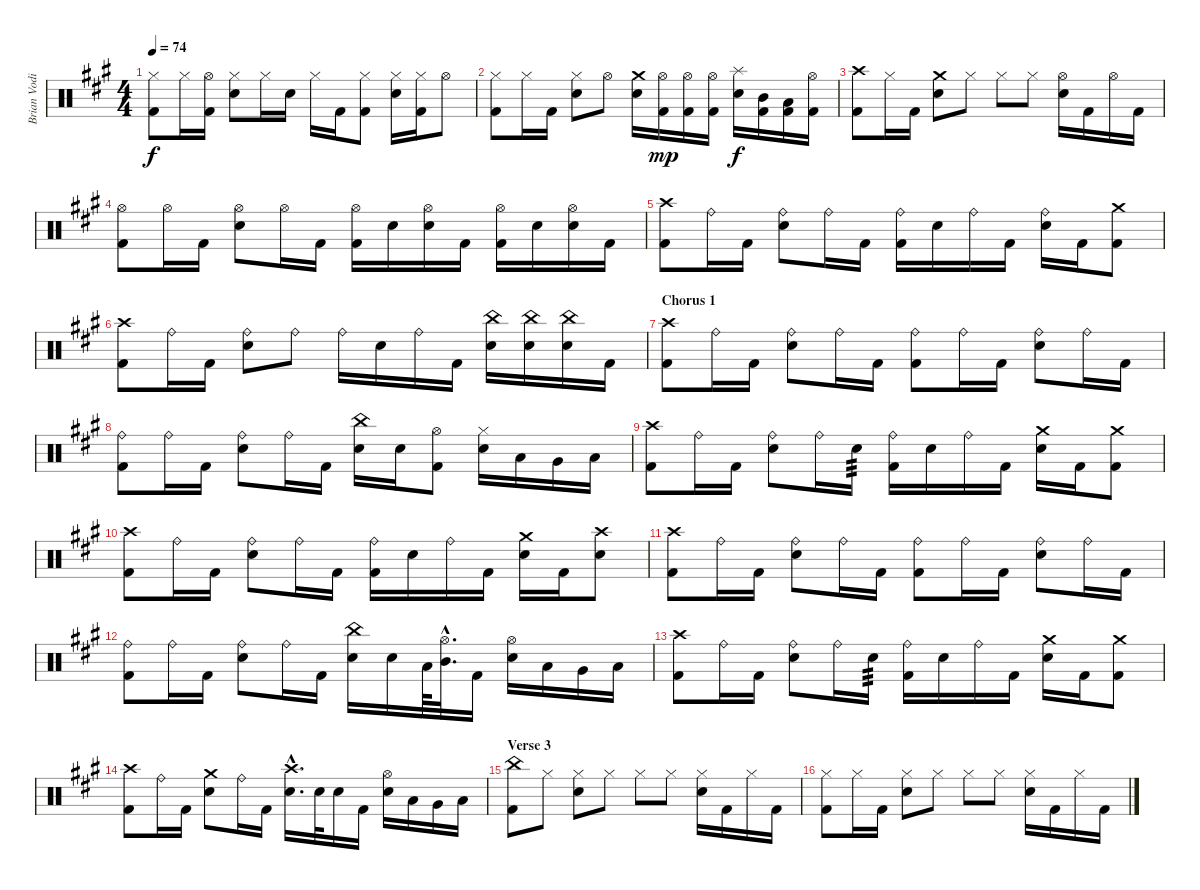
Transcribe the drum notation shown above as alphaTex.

\track ("Brian Vodinh" "Brian Vodi") {instrument percussion}
\staff {score}
\articulation defaults
\ts (4 4)
\tempo 74
\clef neutral
\ks f#minor
("Hi-Hat (closed)" "Kick (hit) 2").8{dy f} "Hi-Hat (closed)".16 ("Hi-Hat (open)" "Kick (hit) 2").16 ("Hi-Hat (closed)" "Electric Snare (hit)").8 "Hi-Hat (closed)".16 "Electric Snare (hit)".16 "Hi-Hat (closed)".16 "Kick (hit) 2".16 ("Hi-Hat (closed)" "Kick (hit) 2").8 ("Hi-Hat (closed)" "Electric Snare (hit)").16 ("Hi-Hat (closed)" "Kick (hit) 2").16 "Hi-Hat (open)".8 |
("Hi-Hat (closed)" "Kick (hit) 2").8 "Hi-Hat (closed)".16 "Kick (hit) 2".16 ("Hi-Hat (closed)" "Electric Snare (hit)").8 "Hi-Hat (open)".8 ("Crash medium (hit)" "Electric Snare (hit)").16 ("Hi-Hat (open)" "Kick (hit) 2").16{dy mp} ("Hi-Hat (open)" "Kick (hit) 2").16 ("Hi-Hat (open)" "Kick (hit) 2").16 ("Splash (hit)" "Electric Snare (hit)").16{dy f} ("Mid Tom (hit)" "Kick (hit) 2").16 ("Low Tom (hit)" "Kick (hit) 2").16 ("Hi-Hat (open)" "Kick (hit) 2").16 |
("Crash high (hit)" "Kick (hit) 2").8 "Hi-Hat (closed)".16 "Kick (hit) 2".16 ("Crash medium (hit)" "Electric Snare (hit)").8 "Hi-Hat (closed)".8 "Hi-Hat (closed)".8 "Hi-Hat (closed)".8 ("Hi-Hat (open)" "Electric Snare (hit)").16 "Kick (hit) 2".16 "Hi-Hat (open)".16 "Kick (hit) 2".16 |
("Hi-Hat (open)" "Kick (hit) 2").8 "Hi-Hat (open)".16 "Kick (hit) 2".16 ("Hi-Hat (open)" "Electric Snare (hit)").8 "Hi-Hat (open)".16 "Kick (hit) 2".16 ("Hi-Hat (open)" "Kick (hit) 2").16 "Electric Snare (hit)".16 ("Hi-Hat (open)" "Electric Snare (hit)").16 "Kick (hit) 2".16 ("Hi-Hat (open)" "Kick (hit) 2").16 "Electric Snare (hit)".16 ("Hi-Hat (open)" "Electric Snare (hit)").16 "Kick (hit) 2".16 |
("Crash high (hit)" "Kick (hit) 2").8 "Ride (bell)".16 "Kick (hit) 2".16 ("Ride (bell)" "Electric Snare (hit)").8 "Ride (bell)".16 "Kick (hit) 2".16 ("Ride (bell)" "Kick (hit) 2").16 "Electric Snare (hit)".16 "Ride (bell)".16 "Kick (hit) 2".16 ("Ride (bell)" "Electric Snare (hit)").16 "Kick (hit) 2".16 ("Crash medium (hit)" "Kick (hit) 2").8 |
("Crash high (hit)" "Kick (hit) 2").8 "Ride (bell)".16 "Kick (hit) 2".16 ("Ride (bell)" "Electric Snare (hit)").8 "Ride (bell)".8 "Ride (bell)".16 "Electric Snare (hit)".16 "Ride (bell)".16 "Kick (hit) 2".16 ("China (hit)" "Electric Snare (hit)").16 ("China (hit)" "Electric Snare (hit)").16 ("China (hit)" "Electric Snare (hit)").16 "Kick (hit) 2".16 |
\section ("" "Chorus 1")
("Crash high (hit)" "Kick (hit) 2").8 "Ride (bell)".16 "Kick (hit) 2".16 ("Ride (bell)" "Electric Snare (hit)").8 "Ride (bell)".16 "Kick (hit) 2".16 ("Ride (bell)" "Kick (hit) 2").8 "Ride (bell)".16 "Kick (hit) 2".16 ("Ride (bell)" "Electric Snare (hit)").8 "Ride (bell)".16 "Kick (hit) 2".16 |
("Ride (bell)" "Kick (hit) 2").8 "Ride (bell)".16 "Kick (hit) 2".16 ("Ride (bell)" "Electric Snare (hit)").8 "Ride (bell)".16 "Kick (hit) 2".16 ("China (hit)" "Electric Snare (hit)").16 "Electric Snare (hit)".16 ("Hi-Hat (open)" "Kick (hit) 2").8 ("Hi-Hat (closed)" "Electric Snare (hit)").16 "Low Tom (hit)".16 "Very Low Tom (hit)".16 "Low Floor Tom (hit)".16 |
("Crash high (hit)" "Kick (hit) 2").8 "Ride (bell)".16 "Kick (hit) 2".16 ("Ride (bell)" "Electric Snare (hit)").8 "Ride (bell)".16 "Electric Snare (hit)".16{tp 3} ("Ride (bell)" "Kick (hit) 2").16 "Electric Snare (hit)".16 "Ride (bell)".16 "Kick (hit) 2".16 ("Crash medium (hit)" "Electric Snare (hit)").16 "Kick (hit) 2".16 ("Crash medium (hit)" "Kick (hit) 2").8 |
("Crash high (hit)" "Kick (hit) 2").8 "Ride (bell)".16 "Kick (hit) 2".16 ("Ride (bell)" "Electric Snare (hit)").8 "Ride (bell)".16 "Kick (hit) 2".16 ("Ride (bell)" "Kick (hit) 2").16 "Electric Snare (hit)".16 "Ride (bell)".16 "Kick (hit) 2".16 ("Crash medium (hit)" "Electric Snare (hit)").16 "Kick (hit) 2".16 ("Crash high (hit)" "Electric Snare (hit)").8 |
("Crash high (hit)" "Kick (hit) 2").8 "Ride (bell)".16 "Kick (hit) 2".16 ("Ride (bell)" "Electric Snare (hit)").8 "Ride (bell)".16 "Kick (hit) 2".16 ("Ride (bell)" "Kick (hit) 2").8 "Ride (bell)".16 "Kick (hit) 2".16 ("Ride (bell)" "Electric Snare (hit)").8 "Ride (bell)".16 "Kick (hit) 2".16 |
("Ride (bell)" "Kick (hit) 2").8 "Ride (bell)".16 "Kick (hit) 2".16 ("Ride (bell)" "Electric Snare (hit)").8 "Ride (bell)".16 "Kick (hit) 2".16 ("China (hit)" "Electric Snare (hit)").16 "Electric Snare (hit)".16 "Low Tom (hit)".64 ("Hi-Hat (open)"{hac} "Mid Tom (hit)"{hac}).32{d} "Kick (hit) 2".16 ("Hi-Hat (open)" "Electric Snare (hit)").16 "Low Tom (hit)".16 "Very Low Tom (hit)".16 "Low Floor Tom (hit)".16 |
("Crash high (hit)" "Kick (hit) 2").8 "Ride (bell)".16 "Kick (hit) 2".16 ("Ride (bell)" "Electric Snare (hit)").8 "Ride (bell)".16 "Electric Snare (hit)".16{tp 3} ("Ride (bell)" "Kick (hit) 2").16 "Electric Snare (hit)".16 "Ride (bell)".16 "Kick (hit) 2".16 ("Crash medium (hit)" "Electric Snare (hit)").16 "Kick (hit) 2".16 ("Crash medium (hit)" "Kick (hit) 2").8 |
("Crash high (hit)" "Kick (hit) 2").8 "Ride (bell)".16 "Kick (hit) 2".16 ("Crash medium (hit)" "Electric Snare (hit)").8 "Ride (bell)".16 "Kick (hit) 2".16 ("Crash high (hit)"{hac} "Electric Snare (hit)"{hac}).16{d} "Electric Snare (hit)".32 "Electric Snare (hit)".16 "Kick (hit) 2".16 ("Hi-Hat (open)" "Electric Snare (hit)").16 "Low Tom (hit)".16 "Very Low Tom (hit)".16 "Low Floor Tom (hit)".16 |
\section ("" "Verse 3")
("China (hit)" "Kick (hit) 2").8 "Hi-Hat (closed)".8 ("Hi-Hat (closed)" "Electric Snare (hit)").8 "Hi-Hat (closed)".8 "Hi-Hat (closed)".8 "Hi-Hat (closed)".8 ("Hi-Hat (closed)" "Electric Snare (hit)").16 "Kick (hit) 2".16 "Hi-Hat (closed)".16 "Kick (hit) 2".16 |
("Hi-Hat (closed)" "Kick (hit) 2").8 "Hi-Hat (closed)".16 "Kick (hit) 2".16 ("Hi-Hat (closed)" "Electric Snare (hit)").8 "Hi-Hat (closed)".8 "Hi-Hat (closed)".8 "Hi-Hat (closed)".8 ("Hi-Hat (closed)" "Electric Snare (hit)").16 "Kick (hit) 2".16 "Hi-Hat (closed)".16 "Kick (hit) 2".16
